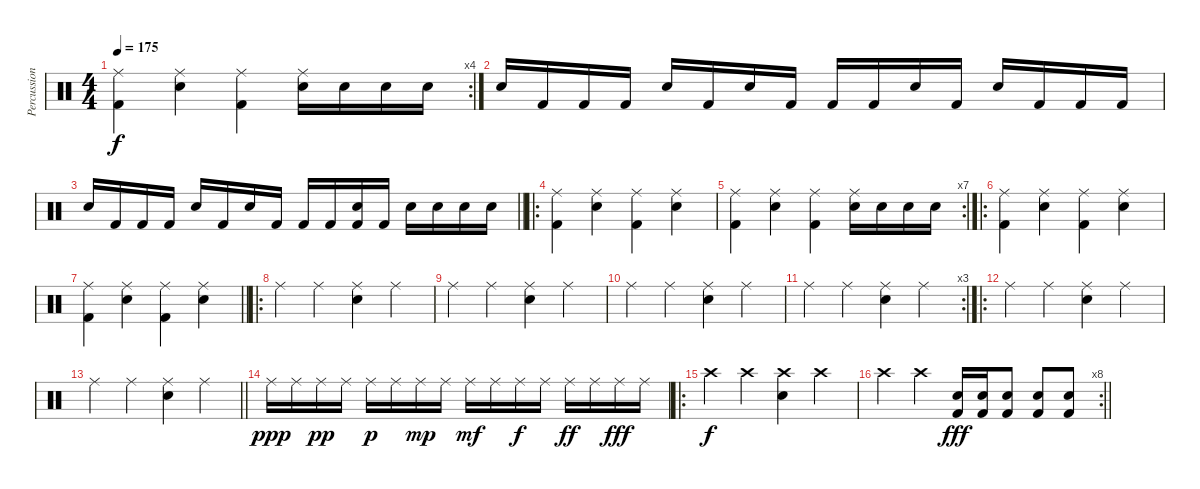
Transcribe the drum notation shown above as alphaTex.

\track ("Percussion" "Percussion") {instrument percussion}
\staff {score}
\articulation defaults
\rc 4
\ts (4 4)
\tempo 175
\clef neutral
\ks c
("Ride (middle)" "Kick (hit) 2").4{dy f} ("Ride (middle)" "Snare (hit) 2").4 ("Ride (middle)" "Kick (hit) 2").4 ("Ride (middle)" "Snare (hit) 2").16 "Snare (hit) 2".16 "Snare (hit) 2".16 "Snare (hit) 2".16 |
"Snare (hit) 2".16 "Kick (hit) 2".16 "Kick (hit) 2".16 "Kick (hit) 2".16 "Snare (hit) 2".16 "Kick (hit) 2".16 "Snare (hit) 2".16 "Kick (hit) 2".16 "Kick (hit) 2".16 "Kick (hit) 2".16 "Snare (hit) 2".16 "Kick (hit) 2".16 "Snare (hit) 2".16 "Kick (hit) 2".16 "Kick (hit) 2".16 "Kick (hit) 2".16 |
\barLineRight lightlight "Snare (hit) 2".16 "Kick (hit) 2".16 "Kick (hit) 2".16 "Kick (hit) 2".16 "Snare (hit) 2".16 "Kick (hit) 2".16 "Snare (hit) 2".16 "Kick (hit) 2".16 "Kick (hit) 2".16 "Kick (hit) 2".16
("Snare (hit) 2" "Kick (hit) 2").16 "Kick (hit) 2".16 "Snare (hit) 2".16 "Snare (hit) 2".16 "Snare (hit) 2".16 "Snare (hit) 2".16 |
\ro
("Ride (middle)" "Kick (hit) 2").4 ("Ride (middle)" "Snare (hit) 2").4 ("Ride (middle)" "Kick (hit) 2").4 ("Ride (middle)" "Snare (hit) 2").4 |
\rc 7
("Ride (middle)" "Kick (hit) 2").4 ("Ride (middle)" "Snare (hit) 2").4 ("Ride (middle)" "Kick (hit) 2").4 ("Ride (middle)" "Snare (hit) 2").16 "Snare (hit) 2".16 "Snare (hit) 2".16 "Snare (hit) 2".16 |
\ro
("Ride (middle)" "Kick (hit) 2").4 ("Ride (middle)" "Snare (hit) 2").4 ("Ride (middle)" "Kick (hit) 2").4 ("Ride (middle)" "Snare (hit) 2").4 |
\barLineRight lightlight
("Ride (middle)" "Kick (hit) 2").4 ("Ride (middle)" "Snare (hit) 2").4 ("Ride (middle)" "Kick (hit) 2").4 ("Ride (middle)" "Snare (hit) 2").4 |
\ro "Ride (middle)".4 "Ride (middle)".4
("Ride (middle)" "Snare (hit) 2").4 "Ride (middle)".4 |
"Ride (middle)".4 "Ride (middle)".4 ("Ride (middle)" "Snare (hit) 2").4 "Ride (middle)".4 |
"Ride (middle)".4 "Ride (middle)".4 ("Ride (middle)" "Snare (hit) 2").4 "Ride (middle)".4 |
\rc 3 "Ride (middle)".4 "Ride (middle)".4
("Ride (middle)" "Snare (hit) 2").4 "Ride (middle)".4 |
\ro "Ride (middle)".4 "Ride (middle)".4
("Ride (middle)" "Snare (hit) 2").4 "Ride (middle)".4 |
\barLineRight lightlight "Ride (middle)".4 "Ride (middle)".4
("Ride (middle)" "Snare (hit) 2").4 "Ride (middle)".4 |
"Ride (middle)".16{dy ppp} "Ride (middle)".16 "Ride (middle)".16{dy pp} "Ride (middle)".16 "Ride (middle)".16{dy p} "Ride (middle)".16 "Ride (middle)".16{dy mp} "Ride (middle)".16 "Ride (middle)".16{dy mf} "Ride (middle)".16 "Ride (middle)".16{dy f} "Ride (middle)".16 "Ride (middle)".16{dy ff} "Ride (middle)".16 "Ride (middle)".16{dy fff} "Ride (middle)".16 |
\ro "Crash high (hit)".4{dy f} "Crash high (hit)".4
("Crash high (hit)" "Snare (hit) 2").4 "Crash high (hit)".4 |
\rc 8
\barLineRight lightlight "Crash high (hit)".4 "Crash high (hit)".4
("Snare (hit) 2" "Kick (hit) 2").16{dy fff} ("Snare (hit) 2" "Kick (hit) 2").16 ("Snare (hit) 2" "Kick (hit) 2").8 ("Snare (hit) 2" "Kick (hit) 2").8 ("Snare (hit) 2" "Kick (hit) 2").8
